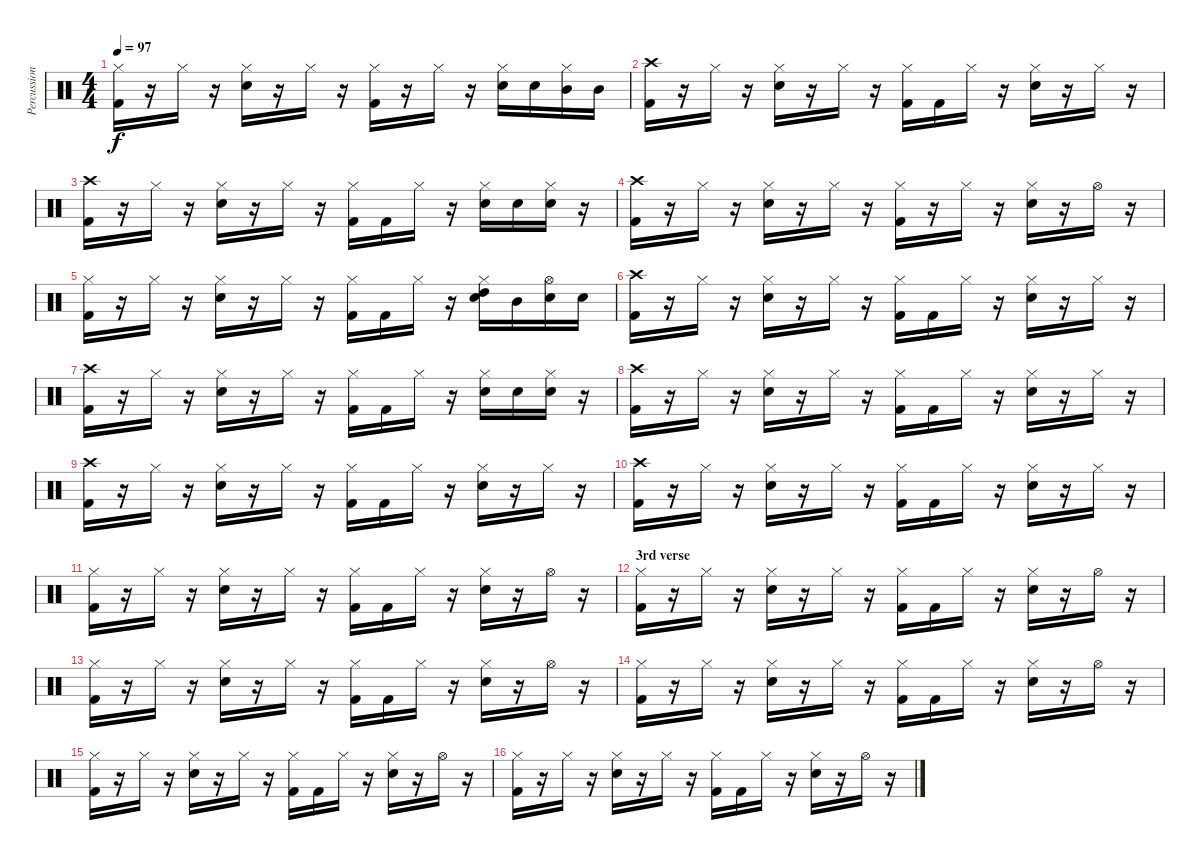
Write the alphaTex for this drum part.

\track ("Percussion" "Percussion") {instrument percussion}
\staff {score}
\articulation defaults
\ts (4 4)
\tempo 97
\clef neutral
\ks c
("Hi-Hat (closed)" "Kick (hit) 2").16{dy f} r.16 "Hi-Hat (closed)".16 r.16 ("Hi-Hat (closed)" "Snare (hit) 2").16 r.16 "Hi-Hat (closed)".16 r.16 ("Hi-Hat (closed)" "Kick (hit) 2").16 r.16 "Hi-Hat (closed)".16 r.16 ("Hi-Hat (closed)" "Snare (hit) 2").16 "Snare (hit) 2".16 ("Hi-Hat (closed)" "Mid Tom (hit)").16 "Mid Tom (hit)".16 |
("Crash high (hit)" "Kick (hit) 2").16 r.16 "Hi-Hat (closed)".16 r.16 ("Hi-Hat (closed)" "Snare (hit) 2").16 r.16 "Hi-Hat (closed)".16 r.16 ("Hi-Hat (closed)" "Kick (hit) 2").16 "Kick (hit) 2".16 "Hi-Hat (closed)".16 r.16 ("Hi-Hat (closed)" "Snare (hit) 2").16 r.16 "Hi-Hat (closed)".16 r.16 |
("Crash high (hit)" "Kick (hit) 2").16 r.16 "Hi-Hat (closed)".16 r.16 ("Hi-Hat (closed)" "Snare (hit) 2").16 r.16 "Hi-Hat (closed)".16 r.16 ("Hi-Hat (closed)" "Kick (hit) 2").16 "Kick (hit) 2".16 "Hi-Hat (closed)".16 r.16 ("Hi-Hat (closed)" "Snare (hit) 2").16 "Snare (hit) 2".16 ("Hi-Hat (closed)" "Snare (hit) 2").16 r.16 |
("Crash high (hit)" "Kick (hit) 2").16 r.16 "Hi-Hat (closed)".16 r.16 ("Hi-Hat (closed)" "Snare (hit) 2").16 r.16 "Hi-Hat (closed)".16 r.16 ("Hi-Hat (closed)" "Kick (hit) 2").16 r.16 "Hi-Hat (closed)".16 r.16 ("Hi-Hat (closed)" "Snare (hit) 2").16 r.16 "Hi-Hat (open)".16 r.16 |
("Hi-Hat (closed)" "Kick (hit) 2").16 r.16 "Hi-Hat (closed)".16 r.16 ("Hi-Hat (closed)" "Snare (hit) 2").16 r.16 "Hi-Hat (closed)".16 r.16 ("Hi-Hat (closed)" "Kick (hit) 2").16 "Kick (hit) 2".16 "Hi-Hat (closed)".16 r.16 ("Hi-Hat (closed)" "Snare (hit) 2" "High Tom (hit)").16 "Mid Tom (hit)".16 ("Hi-Hat (open)" "Snare (hit) 2").16 "Snare (hit) 2".16 |
("Crash high (hit)" "Kick (hit) 2").16 r.16 "Hi-Hat (closed)".16 r.16 ("Hi-Hat (closed)" "Snare (hit) 2").16 r.16 "Hi-Hat (closed)".16 r.16 ("Hi-Hat (closed)" "Kick (hit) 2").16 "Kick (hit) 2".16 "Hi-Hat (closed)".16 r.16 ("Hi-Hat (closed)" "Snare (hit) 2").16 r.16 "Hi-Hat (closed)".16 r.16 |
("Crash high (hit)" "Kick (hit) 2").16 r.16 "Hi-Hat (closed)".16 r.16 ("Hi-Hat (closed)" "Snare (hit) 2").16 r.16 "Hi-Hat (closed)".16 r.16 ("Hi-Hat (closed)" "Kick (hit) 2").16 "Kick (hit) 2".16 "Hi-Hat (closed)".16 r.16 ("Hi-Hat (closed)" "Snare (hit) 2").16 "Snare (hit) 2".16 ("Hi-Hat (closed)" "Snare (hit) 2").16 r.16 |
("Crash high (hit)" "Kick (hit) 2").16 r.16 "Hi-Hat (closed)".16 r.16 ("Hi-Hat (closed)" "Snare (hit) 2").16 r.16 "Hi-Hat (closed)".16 r.16 ("Hi-Hat (closed)" "Kick (hit) 2").16 "Kick (hit) 2".16 "Hi-Hat (closed)".16 r.16 ("Hi-Hat (closed)" "Snare (hit) 2").16 r.16 "Hi-Hat (closed)".16 r.16 |
("Crash high (hit)" "Kick (hit) 2").16 r.16 "Hi-Hat (closed)".16 r.16 ("Hi-Hat (closed)" "Snare (hit) 2").16 r.16 "Hi-Hat (closed)".16 r.16 ("Hi-Hat (closed)" "Kick (hit) 2").16 "Kick (hit) 2".16 "Hi-Hat (closed)".16 r.16 ("Hi-Hat (closed)" "Snare (hit) 2").16 r.16 "Hi-Hat (closed)".16 r.16 |
("Crash high (hit)" "Kick (hit) 2").16 r.16 "Hi-Hat (closed)".16 r.16 ("Hi-Hat (closed)" "Snare (hit) 2").16 r.16 "Hi-Hat (closed)".16 r.16 ("Hi-Hat (closed)" "Kick (hit) 2").16 "Kick (hit) 2".16 "Hi-Hat (closed)".16 r.16 ("Hi-Hat (closed)" "Snare (hit) 2").16 r.16 "Hi-Hat (closed)".16 r.16 |
("Hi-Hat (closed)" "Kick (hit) 2").16 r.16 "Hi-Hat (closed)".16 r.16 ("Hi-Hat (closed)" "Snare (hit) 2").16 r.16 "Hi-Hat (closed)".16 r.16 ("Hi-Hat (closed)" "Kick (hit) 2").16 "Kick (hit) 2".16 "Hi-Hat (closed)".16 r.16 ("Hi-Hat (closed)" "Snare (hit) 2").16 r.16 "Hi-Hat (open)".16 r.16 |
\section ("" "3rd verse")
("Hi-Hat (closed)" "Kick (hit) 2").16 r.16 "Hi-Hat (closed)".16 r.16 ("Hi-Hat (closed)" "Snare (hit) 2").16 r.16 "Hi-Hat (closed)".16 r.16 ("Hi-Hat (closed)" "Kick (hit) 2").16 "Kick (hit) 2".16 "Hi-Hat (closed)".16 r.16 ("Hi-Hat (closed)" "Snare (hit) 2").16 r.16 "Hi-Hat (open)".16 r.16 |
("Hi-Hat (closed)" "Kick (hit) 2").16 r.16 "Hi-Hat (closed)".16 r.16 ("Hi-Hat (closed)" "Snare (hit) 2").16 r.16 "Hi-Hat (closed)".16 r.16 ("Hi-Hat (closed)" "Kick (hit) 2").16 "Kick (hit) 2".16 "Hi-Hat (closed)".16 r.16 ("Hi-Hat (closed)" "Snare (hit) 2").16 r.16 "Hi-Hat (open)".16 r.16 |
("Hi-Hat (closed)" "Kick (hit) 2").16 r.16 "Hi-Hat (closed)".16 r.16 ("Hi-Hat (closed)" "Snare (hit) 2").16 r.16 "Hi-Hat (closed)".16 r.16 ("Hi-Hat (closed)" "Kick (hit) 2").16 "Kick (hit) 2".16 "Hi-Hat (closed)".16 r.16 ("Hi-Hat (closed)" "Snare (hit) 2").16 r.16 "Hi-Hat (open)".16 r.16 |
("Hi-Hat (closed)" "Kick (hit) 2").16 r.16 "Hi-Hat (closed)".16 r.16 ("Hi-Hat (closed)" "Snare (hit) 2").16 r.16 "Hi-Hat (closed)".16 r.16 ("Hi-Hat (closed)" "Kick (hit) 2").16 "Kick (hit) 2".16 "Hi-Hat (closed)".16 r.16 ("Hi-Hat (closed)" "Snare (hit) 2").16 r.16 "Hi-Hat (open)".16 r.16 |
("Hi-Hat (closed)" "Kick (hit) 2").16 r.16 "Hi-Hat (closed)".16 r.16 ("Hi-Hat (closed)" "Snare (hit) 2").16 r.16 "Hi-Hat (closed)".16 r.16 ("Hi-Hat (closed)" "Kick (hit) 2").16 "Kick (hit) 2".16 "Hi-Hat (closed)".16 r.16 ("Hi-Hat (closed)" "Snare (hit) 2").16 r.16 "Hi-Hat (open)".16 r.16
